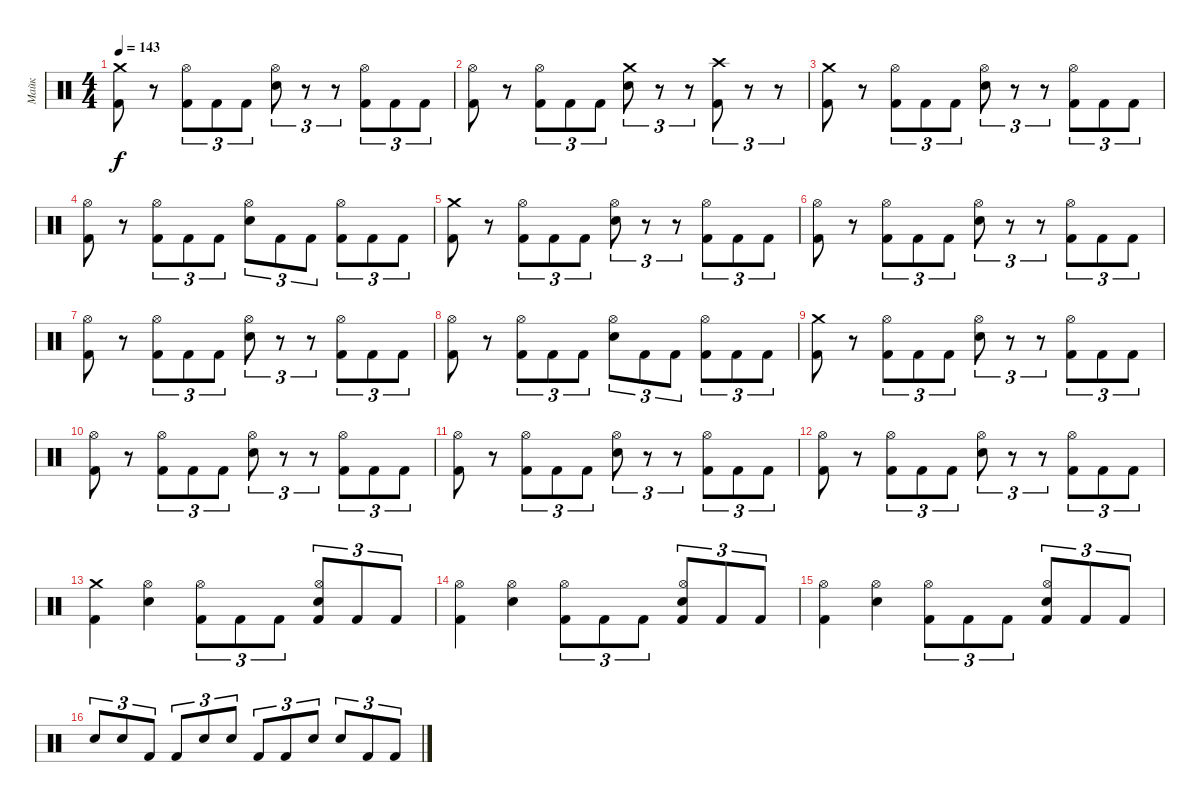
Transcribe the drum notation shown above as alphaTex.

\track ("Майк" "Майк") {instrument percussion}
\staff {score}
\articulation defaults
\ts (4 4)
\tempo 143
\clef neutral
\ks c
("Crash medium (hit)" "Kick (hit) 2").8{dy f} r.8 ("Hi-Hat (open)" "Kick (hit) 2").8{tu (3 2)} "Kick (hit) 2".8{tu (3 2)} "Kick (hit) 2".8{tu (3 2)} ("Hi-Hat (open)" "Electric Snare (hit)").8{tu (3 2)} r.8{tu (3 2)} r.8{tu (3 2)} ("Hi-Hat (open)" "Kick (hit) 2").8{tu (3 2)} "Kick (hit) 2".8{tu (3 2)} "Kick (hit) 2".8{tu (3 2)} |
("Hi-Hat (open)" "Kick (hit) 2").8 r.8 ("Hi-Hat (open)" "Kick (hit) 2").8{tu (3 2)} "Kick (hit) 2".8{tu (3 2)} "Kick (hit) 2".8{tu (3 2)} ("Crash medium (hit)" "Electric Snare (hit)").8{tu (3 2)} r.8{tu (3 2)} r.8{tu (3 2)} ("Crash high (hit)" "Kick (hit) 2").8{tu (3 2)} r.8{tu (3 2)} r.8{tu (3 2)} |
("Crash medium (hit)" "Kick (hit) 2").8 r.8 ("Hi-Hat (open)" "Kick (hit) 2").8{tu (3 2)} "Kick (hit) 2".8{tu (3 2)} "Kick (hit) 2".8{tu (3 2)} ("Hi-Hat (open)" "Electric Snare (hit)").8{tu (3 2)} r.8{tu (3 2)} r.8{tu (3 2)} ("Hi-Hat (open)" "Kick (hit) 2").8{tu (3 2)} "Kick (hit) 2".8{tu (3 2)} "Kick (hit) 2".8{tu (3 2)} |
("Hi-Hat (open)" "Kick (hit) 2").8 r.8 ("Hi-Hat (open)" "Kick (hit) 2").8{tu (3 2)} "Kick (hit) 2".8{tu (3 2)} "Kick (hit) 2".8{tu (3 2)} ("Hi-Hat (open)" "Electric Snare (hit)").8{tu (3 2)} "Kick (hit) 2".8{tu (3 2)} "Kick (hit) 2".8{tu (3 2)} ("Hi-Hat (open)" "Kick (hit) 2").8{tu (3 2)} "Kick (hit) 2".8{tu (3 2)} "Kick (hit) 2".8{tu (3 2)} |
("Crash medium (hit)" "Kick (hit) 2").8 r.8 ("Hi-Hat (open)" "Kick (hit) 2").8{tu (3 2)} "Kick (hit) 2".8{tu (3 2)} "Kick (hit) 2".8{tu (3 2)} ("Hi-Hat (open)" "Electric Snare (hit)").8{tu (3 2)} r.8{tu (3 2)} r.8{tu (3 2)} ("Hi-Hat (open)" "Kick (hit) 2").8{tu (3 2)} "Kick (hit) 2".8{tu (3 2)} "Kick (hit) 2".8{tu (3 2)} |
("Hi-Hat (open)" "Kick (hit) 2").8 r.8 ("Hi-Hat (open)" "Kick (hit) 2").8{tu (3 2)} "Kick (hit) 2".8{tu (3 2)} "Kick (hit) 2".8{tu (3 2)} ("Hi-Hat (open)" "Electric Snare (hit)").8{tu (3 2)} r.8{tu (3 2)} r.8{tu (3 2)} ("Hi-Hat (open)" "Kick (hit) 2").8{tu (3 2)} "Kick (hit) 2".8{tu (3 2)} "Kick (hit) 2".8{tu (3 2)} |
("Hi-Hat (open)" "Kick (hit) 2").8 r.8 ("Hi-Hat (open)" "Kick (hit) 2").8{tu (3 2)} "Kick (hit) 2".8{tu (3 2)} "Kick (hit) 2".8{tu (3 2)} ("Hi-Hat (open)" "Electric Snare (hit)").8{tu (3 2)} r.8{tu (3 2)} r.8{tu (3 2)} ("Hi-Hat (open)" "Kick (hit) 2").8{tu (3 2)} "Kick (hit) 2".8{tu (3 2)} "Kick (hit) 2".8{tu (3 2)} |
("Hi-Hat (open)" "Kick (hit) 2").8 r.8 ("Hi-Hat (open)" "Kick (hit) 2").8{tu (3 2)} "Kick (hit) 2".8{tu (3 2)} "Kick (hit) 2".8{tu (3 2)} ("Hi-Hat (open)" "Electric Snare (hit)").8{tu (3 2)} "Kick (hit) 2".8{tu (3 2)} "Kick (hit) 2".8{tu (3 2)} ("Hi-Hat (open)" "Kick (hit) 2").8{tu (3 2)} "Kick (hit) 2".8{tu (3 2)} "Kick (hit) 2".8{tu (3 2)} |
("Crash medium (hit)" "Kick (hit) 2").8 r.8 ("Hi-Hat (open)" "Kick (hit) 2").8{tu (3 2)} "Kick (hit) 2".8{tu (3 2)} "Kick (hit) 2".8{tu (3 2)} ("Hi-Hat (open)" "Electric Snare (hit)").8{tu (3 2)} r.8{tu (3 2)} r.8{tu (3 2)} ("Hi-Hat (open)" "Kick (hit) 2").8{tu (3 2)} "Kick (hit) 2".8{tu (3 2)} "Kick (hit) 2".8{tu (3 2)} |
("Hi-Hat (open)" "Kick (hit) 2").8 r.8 ("Hi-Hat (open)" "Kick (hit) 2").8{tu (3 2)} "Kick (hit) 2".8{tu (3 2)} "Kick (hit) 2".8{tu (3 2)} ("Hi-Hat (open)" "Electric Snare (hit)").8{tu (3 2)} r.8{tu (3 2)} r.8{tu (3 2)} ("Hi-Hat (open)" "Kick (hit) 2").8{tu (3 2)} "Kick (hit) 2".8{tu (3 2)} "Kick (hit) 2".8{tu (3 2)} |
("Hi-Hat (open)" "Kick (hit) 2").8 r.8 ("Hi-Hat (open)" "Kick (hit) 2").8{tu (3 2)} "Kick (hit) 2".8{tu (3 2)} "Kick (hit) 2".8{tu (3 2)} ("Hi-Hat (open)" "Electric Snare (hit)").8{tu (3 2)} r.8{tu (3 2)} r.8{tu (3 2)} ("Hi-Hat (open)" "Kick (hit) 2").8{tu (3 2)} "Kick (hit) 2".8{tu (3 2)} "Kick (hit) 2".8{tu (3 2)} |
("Hi-Hat (open)" "Kick (hit) 2").8 r.8 ("Hi-Hat (open)" "Kick (hit) 2").8{tu (3 2)} "Kick (hit) 2".8{tu (3 2)} "Kick (hit) 2".8{tu (3 2)} ("Hi-Hat (open)" "Electric Snare (hit)").8{tu (3 2)} r.8{tu (3 2)} r.8{tu (3 2)} ("Hi-Hat (open)" "Kick (hit) 2").8{tu (3 2)} "Kick (hit) 2".8{tu (3 2)} "Kick (hit) 2".8{tu (3 2)} |
("Crash medium (hit)" "Kick (hit) 2").4 ("Hi-Hat (open)" "Electric Snare (hit)").4 ("Hi-Hat (open)" "Kick (hit) 2").8{tu (3 2)} "Kick (hit) 2".8{tu (3 2)} "Kick (hit) 2".8{tu (3 2)} ("Hi-Hat (open)" "Electric Snare (hit)" "Kick (hit) 2").8{tu (3 2)} "Kick (hit) 2".8{tu (3 2)} "Kick (hit) 2".8{tu (3 2)} |
("Hi-Hat (open)" "Kick (hit) 2").4 ("Hi-Hat (open)" "Electric Snare (hit)").4 ("Hi-Hat (open)" "Kick (hit) 2").8{tu (3 2)} "Kick (hit) 2".8{tu (3 2)} "Kick (hit) 2".8{tu (3 2)} ("Hi-Hat (open)" "Electric Snare (hit)" "Kick (hit) 2").8{tu (3 2)} "Kick (hit) 2".8{tu (3 2)} "Kick (hit) 2".8{tu (3 2)} |
("Hi-Hat (open)" "Kick (hit) 2").4 ("Hi-Hat (open)" "Electric Snare (hit)").4 ("Hi-Hat (open)" "Kick (hit) 2").8{tu (3 2)} "Kick (hit) 2".8{tu (3 2)} "Kick (hit) 2".8{tu (3 2)} ("Hi-Hat (open)" "Electric Snare (hit)" "Kick (hit) 2").8{tu (3 2)} "Kick (hit) 2".8{tu (3 2)} "Kick (hit) 2".8{tu (3 2)} |
"Electric Snare (hit)".8{tu (3 2)} "Electric Snare (hit)".8{tu (3 2)} "Kick (hit) 2".8{tu (3 2)} "Kick (hit) 2".8{tu (3 2)} "Electric Snare (hit)".8{tu (3 2)} "Electric Snare (hit)".8{tu (3 2)} "Kick (hit) 2".8{tu (3 2)} "Kick (hit) 2".8{tu (3 2)} "Electric Snare (hit)".8{tu (3 2)} "Electric Snare (hit)".8{tu (3 2)} "Kick (hit) 2".8{tu (3 2)} "Kick (hit) 2".8{tu (3 2)}
